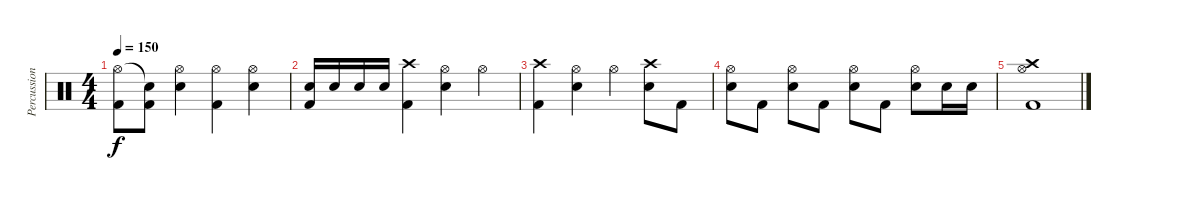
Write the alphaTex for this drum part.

\track ("Percussion" "Percussion") {instrument percussion}
\staff {score}
\articulation defaults
\ts (4 4)
\tempo 150
\clef neutral
\ks c
("Hi-Hat (open)" "Kick (hit) 2").8{dy f} ("Snare (hit)"{t} "Kick (hit) 2").8 ("Hi-Hat (open)" "Snare (hit) 2").4 ("Hi-Hat (open)" "Kick (hit) 2").4 ("Hi-Hat (open)" "Snare (hit) 2").4 |
("Snare (hit) 2" "Kick (hit) 2").16 "Snare (hit) 2".16 "Snare (hit) 2".16 "Snare (hit) 2".16 ("Crash high (hit)" "Kick (hit) 2").4 ("Hi-Hat (open)" "Snare (hit) 2").4 "Hi-Hat (open)".4 |
("Crash high (hit)" "Kick (hit) 2").4 ("Hi-Hat (open)" "Snare (hit) 2").4 "Hi-Hat (open)".4 ("Crash high (hit)" "Snare (hit) 2").8 "Kick (hit) 2".8 |
("Hi-Hat (open)" "Snare (hit) 2").8 "Kick (hit) 2".8 ("Hi-Hat (open)" "Snare (hit) 2").8 "Kick (hit) 2".8 ("Hi-Hat (open)" "Snare (hit) 2").8 "Kick (hit) 2".8 ("Hi-Hat (open)" "Snare (hit) 2").8 "Snare (hit) 2".16 "Snare (hit) 2".16 |
("Crash high (hit)" "Hi-Hat (open)" "Kick (hit) 2").1
